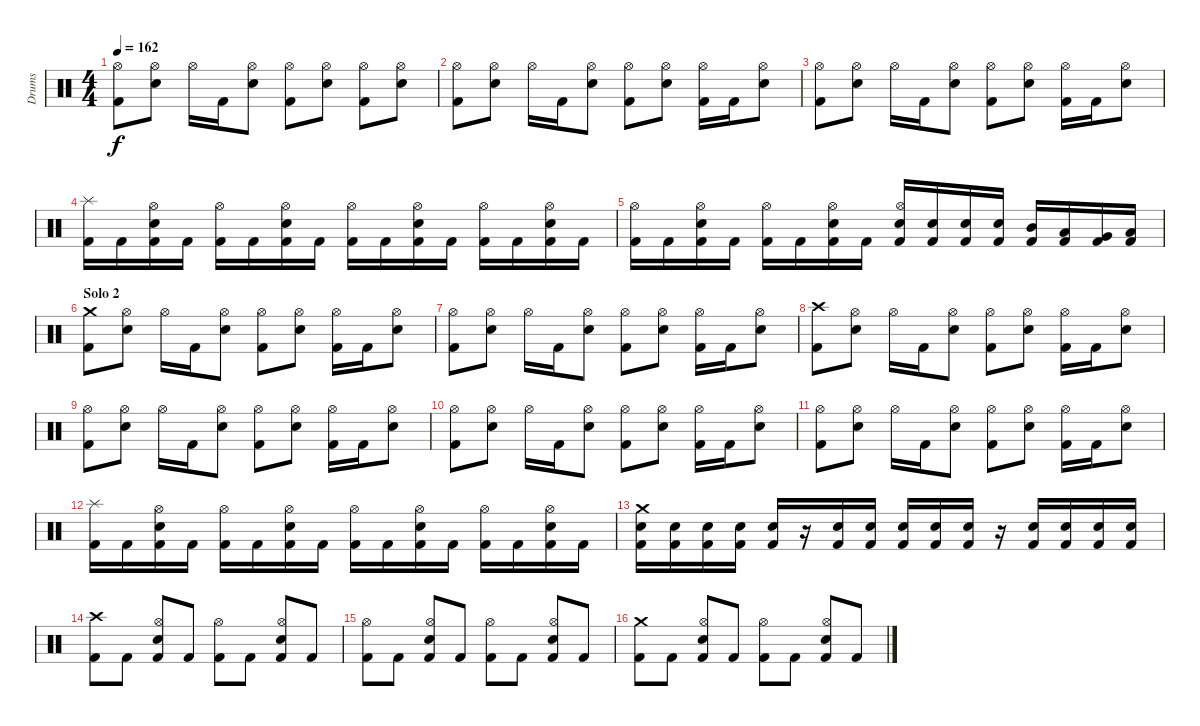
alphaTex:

\track ("Drums" "Drums") {instrument percussion}
\staff {score}
\articulation defaults
\ts (4 4)
\tempo 162
\clef neutral
\ks c
("Kick (hit) 2" "Hi-Hat (open)").8{dy f} ("Electric Snare (hit)" "Hi-Hat (open)").8 "Hi-Hat (open)".16 "Kick (hit) 2".16 ("Electric Snare (hit)" "Hi-Hat (open)").8 ("Kick (hit) 2" "Hi-Hat (open)").8 ("Electric Snare (hit)" "Hi-Hat (open)").8 ("Kick (hit) 2" "Hi-Hat (open)").8 ("Electric Snare (hit)" "Hi-Hat (open)").8 |
("Kick (hit) 2" "Hi-Hat (open)").8 ("Electric Snare (hit)" "Hi-Hat (open)").8 "Hi-Hat (open)".16 "Kick (hit) 2".16 ("Electric Snare (hit)" "Hi-Hat (open)").8 ("Kick (hit) 2" "Hi-Hat (open)").8 ("Electric Snare (hit)" "Hi-Hat (open)").8 ("Kick (hit) 2" "Hi-Hat (open)").16 "Kick (hit) 2".16 ("Electric Snare (hit)" "Hi-Hat (open)").8 |
("Kick (hit) 2" "Hi-Hat (open)").8 ("Electric Snare (hit)" "Hi-Hat (open)").8 "Hi-Hat (open)".16 "Kick (hit) 2".16 ("Electric Snare (hit)" "Hi-Hat (open)").8 ("Kick (hit) 2" "Hi-Hat (open)").8 ("Electric Snare (hit)" "Hi-Hat (open)").8 ("Kick (hit) 2" "Hi-Hat (open)").16 "Kick (hit) 2".16 ("Electric Snare (hit)" "Hi-Hat (open)").8 |
("Kick (hit) 2" "Splash (hit)").16 "Kick (hit) 2".16 ("Kick (hit) 2" "Electric Snare (hit)" "Hi-Hat (open)").16 "Kick (hit) 2".16 ("Kick (hit) 2" "Hi-Hat (open)").16 "Kick (hit) 2".16 ("Kick (hit) 2" "Electric Snare (hit)" "Hi-Hat (open)").16 "Kick (hit) 2".16 ("Kick (hit) 2" "Hi-Hat (open)").16 "Kick (hit) 2".16 ("Kick (hit) 2" "Electric Snare (hit)" "Hi-Hat (open)").16 "Kick (hit) 2".16 ("Kick (hit) 2" "Hi-Hat (open)").16 "Kick (hit) 2".16 ("Kick (hit) 2" "Electric Snare (hit)" "Hi-Hat (open)").16 "Kick (hit) 2".16 |
("Kick (hit) 2" "Hi-Hat (open)").16 "Kick (hit) 2".16 ("Kick (hit) 2" "Electric Snare (hit)" "Hi-Hat (open)").16 "Kick (hit) 2".16 ("Kick (hit) 2" "Hi-Hat (open)").16 "Kick (hit) 2".16 ("Kick (hit) 2" "Electric Snare (hit)" "Hi-Hat (open)").16 "Kick (hit) 2".16 ("Kick (hit) 2" "Electric Snare (hit)" "Hi-Hat (open)").16 ("Kick (hit) 2" "Electric Snare (hit)").16 ("Kick (hit) 2" "Electric Snare (hit)").16 ("Kick (hit) 2" "Electric Snare (hit)").16 ("Kick (hit) 2" "Mid Tom (hit)").16 ("Kick (hit) 2" "Low Tom (hit)").16 ("Kick (hit) 2" "Very Low Tom (hit)").16 ("Kick (hit) 2" "Low Floor Tom (hit)").16 |
\section ("" "Solo 2")
("Kick (hit) 2" "Crash medium (hit)").8 ("Electric Snare (hit)" "Hi-Hat (open)").8 "Hi-Hat (open)".16 "Kick (hit) 2".16 ("Electric Snare (hit)" "Hi-Hat (open)").8 ("Kick (hit) 2" "Hi-Hat (open)").8 ("Electric Snare (hit)" "Hi-Hat (open)").8 ("Kick (hit) 2" "Hi-Hat (open)").16 "Kick (hit) 2".16 ("Electric Snare (hit)" "Hi-Hat (open)").8 |
("Kick (hit) 2" "Hi-Hat (open)").8 ("Electric Snare (hit)" "Hi-Hat (open)").8 "Hi-Hat (open)".16 "Kick (hit) 2".16 ("Electric Snare (hit)" "Hi-Hat (open)").8 ("Kick (hit) 2" "Hi-Hat (open)").8 ("Electric Snare (hit)" "Hi-Hat (open)").8 ("Kick (hit) 2" "Hi-Hat (open)").16 "Kick (hit) 2".16 ("Electric Snare (hit)" "Hi-Hat (open)").8 |
("Kick (hit) 2" "Crash high (hit)").8 ("Electric Snare (hit)" "Hi-Hat (open)").8 "Hi-Hat (open)".16 "Kick (hit) 2".16 ("Electric Snare (hit)" "Hi-Hat (open)").8 ("Kick (hit) 2" "Hi-Hat (open)").8 ("Electric Snare (hit)" "Hi-Hat (open)").8 ("Kick (hit) 2" "Hi-Hat (open)").16 "Kick (hit) 2".16 ("Electric Snare (hit)" "Hi-Hat (open)").8 |
("Kick (hit) 2" "Hi-Hat (open)").8 ("Electric Snare (hit)" "Hi-Hat (open)").8 "Hi-Hat (open)".16 "Kick (hit) 2".16 ("Electric Snare (hit)" "Hi-Hat (open)").8 ("Kick (hit) 2" "Hi-Hat (open)").8 ("Electric Snare (hit)" "Hi-Hat (open)").8 ("Kick (hit) 2" "Hi-Hat (open)").16 "Kick (hit) 2".16 ("Electric Snare (hit)" "Hi-Hat (open)").8 |
("Kick (hit) 2" "Hi-Hat (open)").8 ("Electric Snare (hit)" "Hi-Hat (open)").8 "Hi-Hat (open)".16 "Kick (hit) 2".16 ("Electric Snare (hit)" "Hi-Hat (open)").8 ("Kick (hit) 2" "Hi-Hat (open)").8 ("Electric Snare (hit)" "Hi-Hat (open)").8 ("Kick (hit) 2" "Hi-Hat (open)").16 "Kick (hit) 2".16 ("Electric Snare (hit)" "Hi-Hat (open)").8 |
("Kick (hit) 2" "Hi-Hat (open)").8 ("Electric Snare (hit)" "Hi-Hat (open)").8 "Hi-Hat (open)".16 "Kick (hit) 2".16 ("Electric Snare (hit)" "Hi-Hat (open)").8 ("Kick (hit) 2" "Hi-Hat (open)").8 ("Electric Snare (hit)" "Hi-Hat (open)").8 ("Kick (hit) 2" "Hi-Hat (open)").16 "Kick (hit) 2".16 ("Electric Snare (hit)" "Hi-Hat (open)").8 |
("Kick (hit) 2" "Splash (hit)").16 "Kick (hit) 2".16 ("Kick (hit) 2" "Electric Snare (hit)" "Hi-Hat (open)").16 "Kick (hit) 2".16 ("Kick (hit) 2" "Hi-Hat (open)").16 "Kick (hit) 2".16 ("Kick (hit) 2" "Electric Snare (hit)" "Hi-Hat (open)").16 "Kick (hit) 2".16 ("Kick (hit) 2" "Hi-Hat (open)").16 "Kick (hit) 2".16 ("Kick (hit) 2" "Electric Snare (hit)" "Hi-Hat (open)").16 "Kick (hit) 2".16 ("Kick (hit) 2" "Hi-Hat (open)").16 "Kick (hit) 2".16 ("Kick (hit) 2" "Electric Snare (hit)" "Hi-Hat (open)").16 "Kick (hit) 2".16 |
("Kick (hit) 2" "Electric Snare (hit)" "Crash medium (hit)").16 ("Kick (hit) 2" "Electric Snare (hit)").16 ("Kick (hit) 2" "Electric Snare (hit)").16 ("Kick (hit) 2" "Electric Snare (hit)").16 ("Kick (hit) 2" "Electric Snare (hit)").16 r.16 ("Kick (hit) 2" "Electric Snare (hit)").16 ("Kick (hit) 2" "Electric Snare (hit)").16 ("Kick (hit) 2" "Electric Snare (hit)").16 ("Kick (hit) 2" "Electric Snare (hit)").16 ("Kick (hit) 2" "Electric Snare (hit)").16 r.16 ("Kick (hit) 2" "Electric Snare (hit)").16 ("Kick (hit) 2" "Electric Snare (hit)").16 ("Kick (hit) 2" "Electric Snare (hit)").16 ("Kick (hit) 2" "Electric Snare (hit)").16 |
\section ("" "")
("Kick (hit) 2" "Crash high (hit)").8 "Kick (hit) 2".8 ("Kick (hit) 2" "Electric Snare (hit)" "Hi-Hat (open)").8 "Kick (hit) 2".8 ("Kick (hit) 2" "Hi-Hat (open)").8 "Kick (hit) 2".8 ("Kick (hit) 2" "Electric Snare (hit)" "Hi-Hat (open)").8 "Kick (hit) 2".8 |
("Kick (hit) 2" "Hi-Hat (open)").8 "Kick (hit) 2".8 ("Kick (hit) 2" "Electric Snare (hit)" "Hi-Hat (open)").8 "Kick (hit) 2".8 ("Kick (hit) 2" "Hi-Hat (open)").8 "Kick (hit) 2".8 ("Kick (hit) 2" "Electric Snare (hit)" "Hi-Hat (open)").8 "Kick (hit) 2".8 |
("Kick (hit) 2" "Crash medium (hit)").8 "Kick (hit) 2".8 ("Kick (hit) 2" "Electric Snare (hit)" "Hi-Hat (open)").8 "Kick (hit) 2".8 ("Kick (hit) 2" "Hi-Hat (open)").8 "Kick (hit) 2".8 ("Kick (hit) 2" "Electric Snare (hit)" "Hi-Hat (open)").8 "Kick (hit) 2".8
